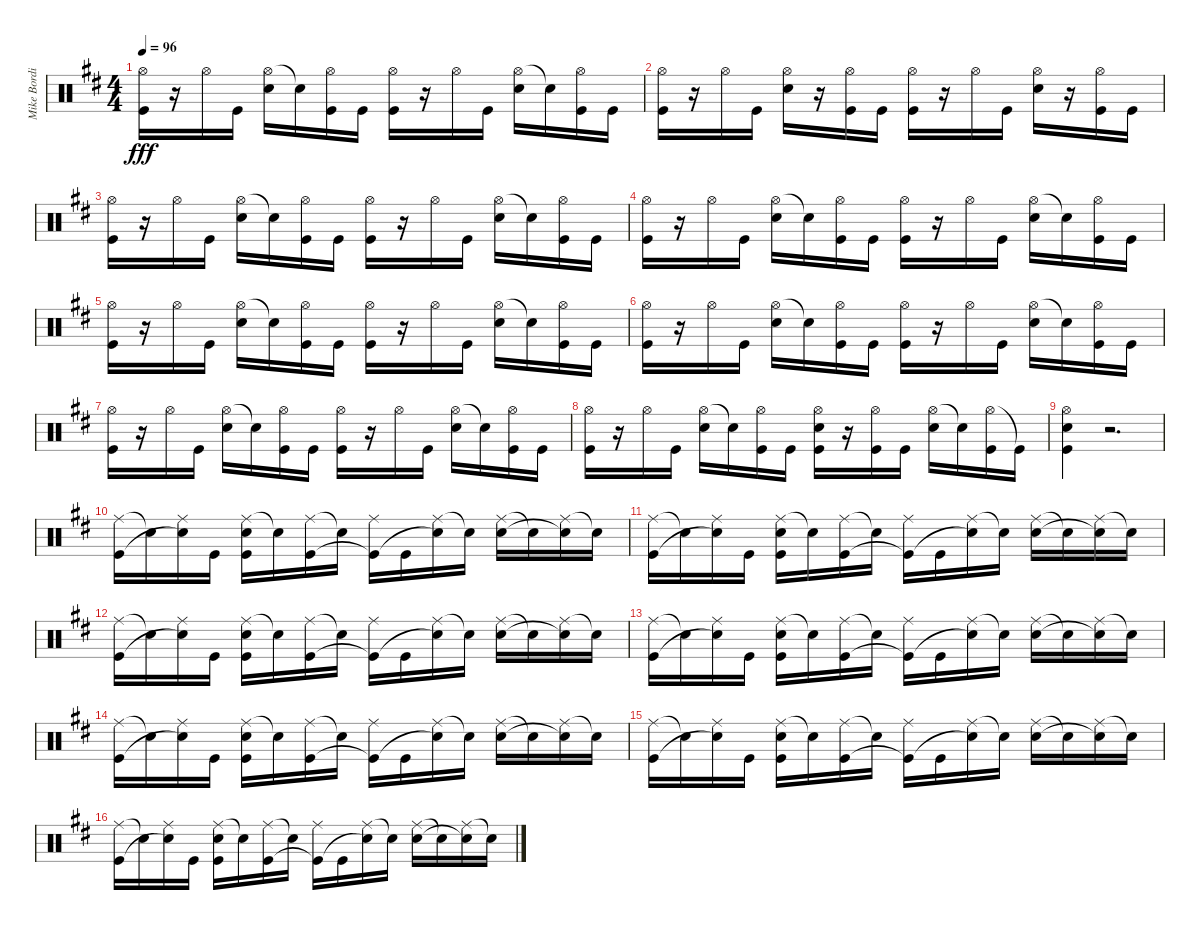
\track ("Mike Bordin" "Mike Bordi") {instrument percussion}
\staff {score}
\articulation defaults
\ts (4 4)
\tempo 96
\clef neutral
\ks d
("Hi-Hat (open)" "Kick (hit)").16{dy fff} r.16 "Hi-Hat (open)".16 "Kick (hit)".16 ("Hi-Hat (open)" "Electric Snare (hit)").16 "Snare (hit)"{t}.16 ("Hi-Hat (open)" "Kick (hit)").16 "Kick (hit)".16 ("Hi-Hat (open)" "Kick (hit)").16 r.16 "Hi-Hat (open)".16 "Kick (hit)".16 ("Hi-Hat (open)" "Electric Snare (hit)").16 "Snare (hit)"{t}.16 ("Hi-Hat (open)" "Kick (hit)").16 "Kick (hit)".16 |
("Hi-Hat (open)" "Kick (hit)").16 r.16 "Hi-Hat (open)".16 "Kick (hit)".16 ("Hi-Hat (open)" "Electric Snare (hit)").16 r.16 ("Hi-Hat (open)" "Kick (hit)").16 "Kick (hit)".16 ("Hi-Hat (open)" "Kick (hit)").16 r.16 "Hi-Hat (open)".16 "Kick (hit)".16 ("Hi-Hat (open)" "Electric Snare (hit)").16 r.16 ("Hi-Hat (open)" "Kick (hit)").16 "Kick (hit)".16 |
("Hi-Hat (open)" "Kick (hit)").16 r.16 "Hi-Hat (open)".16 "Kick (hit)".16 ("Hi-Hat (open)" "Electric Snare (hit)").16 "Snare (hit)"{t}.16 ("Hi-Hat (open)" "Kick (hit)").16 "Kick (hit)".16 ("Hi-Hat (open)" "Kick (hit)").16 r.16 "Hi-Hat (open)".16 "Kick (hit)".16 ("Hi-Hat (open)" "Electric Snare (hit)").16 "Snare (hit)"{t}.16 ("Hi-Hat (open)" "Kick (hit)").16 "Kick (hit)".16 |
("Hi-Hat (open)" "Kick (hit)").16 r.16 "Hi-Hat (open)".16 "Kick (hit)".16 ("Hi-Hat (open)" "Electric Snare (hit)").16 "Snare (hit)"{t}.16 ("Hi-Hat (open)" "Kick (hit)").16 "Kick (hit)".16 ("Hi-Hat (open)" "Kick (hit)").16 r.16 "Hi-Hat (open)".16 "Kick (hit)".16 ("Hi-Hat (open)" "Electric Snare (hit)").16 "Snare (hit)"{t}.16 ("Hi-Hat (open)" "Kick (hit)").16 "Kick (hit)".16 |
("Hi-Hat (open)" "Kick (hit)").16 r.16 "Hi-Hat (open)".16 "Kick (hit)".16 ("Hi-Hat (open)" "Electric Snare (hit)").16 "Snare (hit)"{t}.16 ("Hi-Hat (open)" "Kick (hit)").16 "Kick (hit)".16 ("Hi-Hat (open)" "Kick (hit)").16 r.16 "Hi-Hat (open)".16 "Kick (hit)".16 ("Hi-Hat (open)" "Electric Snare (hit)").16 "Snare (hit)"{t}.16 ("Hi-Hat (open)" "Kick (hit)").16 "Kick (hit)".16 |
("Hi-Hat (open)" "Kick (hit)").16 r.16 "Hi-Hat (open)".16 "Kick (hit)".16 ("Hi-Hat (open)" "Electric Snare (hit)").16 "Snare (hit)"{t}.16 ("Hi-Hat (open)" "Kick (hit)").16 "Kick (hit)".16 ("Hi-Hat (open)" "Kick (hit)").16 r.16 "Hi-Hat (open)".16 "Kick (hit)".16 ("Hi-Hat (open)" "Electric Snare (hit)").16 "Snare (hit)"{t}.16 ("Hi-Hat (open)" "Kick (hit)").16 "Kick (hit)".16 |
("Hi-Hat (open)" "Kick (hit)").16 r.16 "Hi-Hat (open)".16 "Kick (hit)".16 ("Hi-Hat (open)" "Electric Snare (hit)").16 "Snare (hit)"{t}.16 ("Hi-Hat (open)" "Kick (hit)").16 "Kick (hit)".16 ("Hi-Hat (open)" "Kick (hit)").16 r.16 "Hi-Hat (open)".16 "Kick (hit)".16 ("Hi-Hat (open)" "Electric Snare (hit)").16 "Snare (hit)"{t}.16 ("Hi-Hat (open)" "Kick (hit)").16 "Kick (hit)".16 |
("Hi-Hat (open)" "Kick (hit)").16 r.16 "Hi-Hat (open)".16 "Kick (hit)".16 ("Hi-Hat (open)" "Electric Snare (hit)").16 "Snare (hit)"{t}.16 ("Hi-Hat (open)" "Kick (hit)").16 "Kick (hit)".16 ("Hi-Hat (open)" "Electric Snare (hit)" "Kick (hit)").16 r.16 ("Hi-Hat (open)" "Kick (hit)").16 "Kick (hit)".16 ("Hi-Hat (open)" "Electric Snare (hit)").16 "Snare (hit)"{t}.16 ("Hi-Hat (open)" "Kick (hit)").16 "Kick (hit)"{t}.16 |
("Hi-Hat (open)" "Electric Snare (hit)" "Kick (hit)").4 r.2{d} |
("Ride (middle)" "Kick (hit)").16 "Snare (hit)"{t}.16 ("Ride (middle)" "Snare (hit)"{t}).16 "Kick (hit)".16 ("Ride (middle)" "Electric Snare (hit)" "Kick (hit)").16 "Snare (hit)"{t}.16 ("Ride (middle)" "Kick (hit)").16 "Snare (hit)"{t}.16 ("Ride (middle)" "Kick (hit)"{t}).16 "Kick (hit)".16 ("Ride (middle)" "Snare (hit)"{t}).16 "Snare (hit)"{t}.16 ("Ride (middle)" "Electric Snare (hit)").16 "Snare (hit)"{t}.16 ("Ride (middle)" "Snare (hit)"{t}).16 "Snare (hit)"{t}.16 |
("Ride (middle)" "Kick (hit)").16 "Snare (hit)"{t}.16 ("Ride (middle)" "Snare (hit)"{t}).16 "Kick (hit)".16 ("Ride (middle)" "Electric Snare (hit)" "Kick (hit)").16 "Snare (hit)"{t}.16 ("Ride (middle)" "Kick (hit)").16 "Snare (hit)"{t}.16 ("Ride (middle)" "Kick (hit)"{t}).16 "Kick (hit)".16 ("Ride (middle)" "Snare (hit)"{t}).16 "Snare (hit)"{t}.16 ("Ride (middle)" "Electric Snare (hit)").16 "Snare (hit)"{t}.16 ("Ride (middle)" "Snare (hit)"{t}).16 "Snare (hit)"{t}.16 |
("Ride (middle)" "Kick (hit)").16 "Snare (hit)"{t}.16 ("Ride (middle)" "Snare (hit)"{t}).16 "Kick (hit)".16 ("Ride (middle)" "Electric Snare (hit)" "Kick (hit)").16 "Snare (hit)"{t}.16 ("Ride (middle)" "Kick (hit)").16 "Snare (hit)"{t}.16 ("Ride (middle)" "Kick (hit)"{t}).16 "Kick (hit)".16 ("Ride (middle)" "Snare (hit)"{t}).16 "Snare (hit)"{t}.16 ("Ride (middle)" "Electric Snare (hit)").16 "Snare (hit)"{t}.16 ("Ride (middle)" "Snare (hit)"{t}).16 "Snare (hit)"{t}.16 |
("Ride (middle)" "Kick (hit)").16 "Snare (hit)"{t}.16 ("Ride (middle)" "Snare (hit)"{t}).16 "Kick (hit)".16 ("Ride (middle)" "Electric Snare (hit)" "Kick (hit)").16 "Snare (hit)"{t}.16 ("Ride (middle)" "Kick (hit)").16 "Snare (hit)"{t}.16 ("Ride (middle)" "Kick (hit)"{t}).16 "Kick (hit)".16 ("Ride (middle)" "Snare (hit)"{t}).16 "Snare (hit)"{t}.16 ("Ride (middle)" "Electric Snare (hit)").16 "Snare (hit)"{t}.16 ("Ride (middle)" "Snare (hit)"{t}).16 "Snare (hit)"{t}.16 |
("Ride (middle)" "Kick (hit)").16 "Snare (hit)"{t}.16 ("Ride (middle)" "Snare (hit)"{t}).16 "Kick (hit)".16 ("Ride (middle)" "Electric Snare (hit)" "Kick (hit)").16 "Snare (hit)"{t}.16 ("Ride (middle)" "Kick (hit)").16 "Snare (hit)"{t}.16 ("Ride (middle)" "Kick (hit)"{t}).16 "Kick (hit)".16 ("Ride (middle)" "Snare (hit)"{t}).16 "Snare (hit)"{t}.16 ("Ride (middle)" "Electric Snare (hit)").16 "Snare (hit)"{t}.16 ("Ride (middle)" "Snare (hit)"{t}).16 "Snare (hit)"{t}.16 |
("Ride (middle)" "Kick (hit)").16 "Snare (hit)"{t}.16 ("Ride (middle)" "Snare (hit)"{t}).16 "Kick (hit)".16 ("Ride (middle)" "Electric Snare (hit)" "Kick (hit)").16 "Snare (hit)"{t}.16 ("Ride (middle)" "Kick (hit)").16 "Snare (hit)"{t}.16 ("Ride (middle)" "Kick (hit)"{t}).16 "Kick (hit)".16 ("Ride (middle)" "Snare (hit)"{t}).16 "Snare (hit)"{t}.16 ("Ride (middle)" "Electric Snare (hit)").16 "Snare (hit)"{t}.16 ("Ride (middle)" "Snare (hit)"{t}).16 "Snare (hit)"{t}.16 |
("Ride (middle)" "Kick (hit)").16 "Snare (hit)"{t}.16 ("Ride (middle)" "Snare (hit)"{t}).16 "Kick (hit)".16 ("Ride (middle)" "Electric Snare (hit)" "Kick (hit)").16 "Snare (hit)"{t}.16 ("Ride (middle)" "Kick (hit)").16 "Snare (hit)"{t}.16 ("Ride (middle)" "Kick (hit)"{t}).16 "Kick (hit)".16 ("Ride (middle)" "Snare (hit)"{t}).16 "Snare (hit)"{t}.16 ("Ride (middle)" "Electric Snare (hit)").16 "Snare (hit)"{t}.16 ("Ride (middle)" "Snare (hit)"{t}).16 "Snare (hit)"{t}.16
